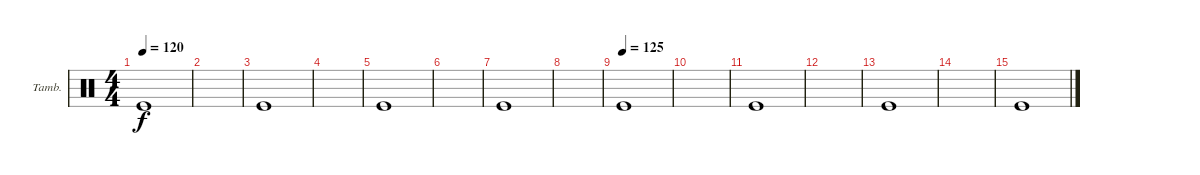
\defaultSystemsLayout 4
\bracketExtendMode groupsimilarinstruments
\firstSystemTrackNameOrientation horizontal
\otherSystemsTrackNameOrientation horizontal
\track ("Tambourine" "Tamb.") {instrument percussion}
\staff {score}
\articulation defaults
\ts (4 4)
\tempo 120
\clef neutral
\ks c "Kick (hit)".1{dy f}
|
|
"Kick (hit)".1 |
|
"Kick (hit)".1 |
|
"Kick (hit)".1 |
|
\tempo (125)
"Kick (hit)".1 |
|
"Kick (hit)".1 |
|
"Kick (hit)".1 |
|
"Kick (hit)".1
